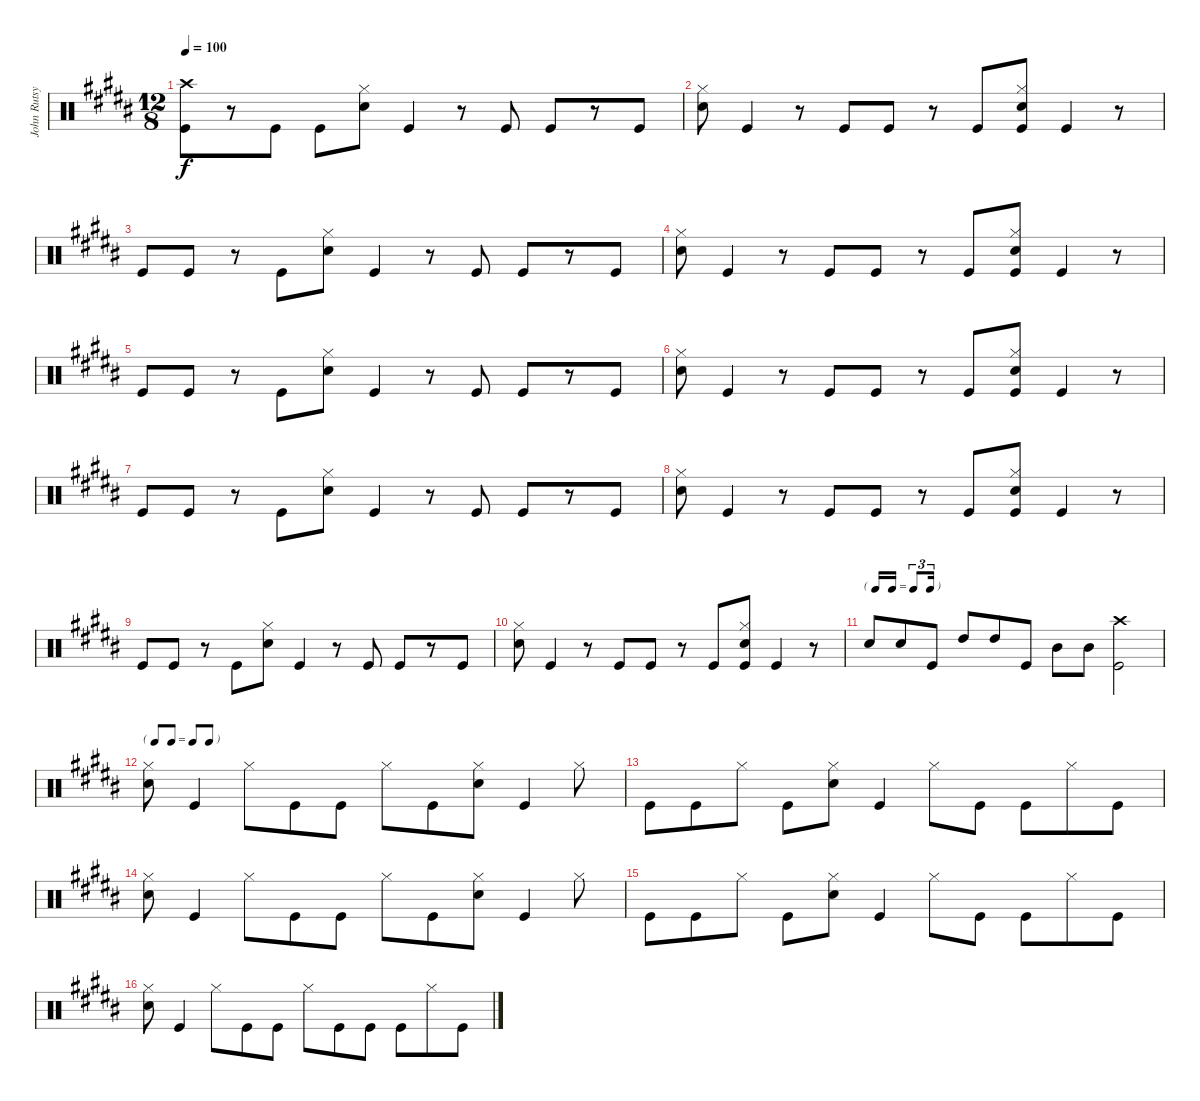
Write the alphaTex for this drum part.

\track ("John Rutsy Drums" "John Rutsy") {instrument percussion}
\staff {score}
\articulation defaults
\ts (12 8)
\tempo 100
\clef neutral
\ks b
("Crash high (hit)" "Kick (hit)").8{dy f} r.8 "Kick (hit)".8 "Kick (hit)".8 ("Hi-Hat (closed)" "Snare (hit) 2").8 "Kick (hit)".4 r.8 "Kick (hit)".8 "Kick (hit)".8 r.8 "Kick (hit)".8 |
("Hi-Hat (closed)" "Snare (hit) 2").8 "Kick (hit)".4 r.8 "Kick (hit)".8 "Kick (hit)".8 r.8 "Kick (hit)".8 ("Hi-Hat (closed)" "Snare (hit) 2" "Kick (hit)").8 "Kick (hit)".4 r.8 |
"Kick (hit)".8 "Kick (hit)".8 r.8 "Kick (hit)".8 ("Hi-Hat (closed)" "Snare (hit) 2").8 "Kick (hit)".4 r.8 "Kick (hit)".8 "Kick (hit)".8 r.8 "Kick (hit)".8 |
("Hi-Hat (closed)" "Snare (hit) 2").8 "Kick (hit)".4 r.8 "Kick (hit)".8 "Kick (hit)".8 r.8 "Kick (hit)".8 ("Hi-Hat (closed)" "Snare (hit) 2" "Kick (hit)").8 "Kick (hit)".4 r.8 |
"Kick (hit)".8 "Kick (hit)".8 r.8 "Kick (hit)".8 ("Hi-Hat (closed)" "Snare (hit) 2").8 "Kick (hit)".4 r.8 "Kick (hit)".8 "Kick (hit)".8 r.8 "Kick (hit)".8 |
("Hi-Hat (closed)" "Snare (hit) 2").8 "Kick (hit)".4 r.8 "Kick (hit)".8 "Kick (hit)".8 r.8 "Kick (hit)".8 ("Hi-Hat (closed)" "Snare (hit) 2" "Kick (hit)").8 "Kick (hit)".4 r.8 |
"Kick (hit)".8 "Kick (hit)".8 r.8 "Kick (hit)".8 ("Hi-Hat (closed)" "Snare (hit) 2").8 "Kick (hit)".4 r.8 "Kick (hit)".8 "Kick (hit)".8 r.8 "Kick (hit)".8 |
("Hi-Hat (closed)" "Snare (hit) 2").8 "Kick (hit)".4 r.8 "Kick (hit)".8 "Kick (hit)".8 r.8 "Kick (hit)".8 ("Hi-Hat (closed)" "Snare (hit) 2" "Kick (hit)").8 "Kick (hit)".4 r.8 |
"Kick (hit)".8 "Kick (hit)".8 r.8 "Kick (hit)".8 ("Hi-Hat (closed)" "Snare (hit) 2").8 "Kick (hit)".4 r.8 "Kick (hit)".8 "Kick (hit)".8 r.8 "Kick (hit)".8 |
("Hi-Hat (closed)" "Snare (hit) 2").8 "Kick (hit)".4 r.8 "Kick (hit)".8 "Kick (hit)".8 r.8 "Kick (hit)".8 ("Hi-Hat (closed)" "Snare (hit) 2" "Kick (hit)").8 "Kick (hit)".4 r.8 |
\tf triplet16th "Snare (hit) 2".8 "Snare (hit) 2".8 "Kick (hit)".8 "High Tom (hit)".8 "High Tom (hit)".8 "Kick (hit)".8 "Mid Tom (hit)".8 "Mid Tom (hit)".8
("Crash high (hit)" "Kick (hit)").2 |
\tf none
("Hi-Hat (closed)" "Snare (hit) 2").8 "Kick (hit)".4 "Hi-Hat (closed)".8 "Kick (hit)".8 "Kick (hit)".8 "Hi-Hat (closed)".8 "Kick (hit)".8 ("Hi-Hat (closed)" "Snare (hit) 2").8 "Kick (hit)".4 "Hi-Hat (closed)".8 |
"Kick (hit)".8 "Kick (hit)".8 "Hi-Hat (closed)".8 "Kick (hit)".8 ("Hi-Hat (closed)" "Snare (hit) 2").8 "Kick (hit)".4 "Hi-Hat (closed)".8 "Kick (hit)".8 "Kick (hit)".8 "Hi-Hat (closed)".8 "Kick (hit)".8 |
("Hi-Hat (closed)" "Snare (hit) 2").8 "Kick (hit)".4 "Hi-Hat (closed)".8 "Kick (hit)".8 "Kick (hit)".8 "Hi-Hat (closed)".8 "Kick (hit)".8 ("Hi-Hat (closed)" "Snare (hit) 2").8 "Kick (hit)".4 "Hi-Hat (closed)".8 |
"Kick (hit)".8 "Kick (hit)".8 "Hi-Hat (closed)".8 "Kick (hit)".8 ("Hi-Hat (closed)" "Snare (hit) 2").8 "Kick (hit)".4 "Hi-Hat (closed)".8 "Kick (hit)".8 "Kick (hit)".8 "Hi-Hat (closed)".8 "Kick (hit)".8 |
("Hi-Hat (closed)" "Snare (hit) 2").8 "Kick (hit)".4 "Hi-Hat (closed)".8 "Kick (hit)".8 "Kick (hit)".8 "Hi-Hat (closed)".8 "Kick (hit)".8 "Kick (hit)".8 "Kick (hit)".8 "Hi-Hat (closed)".8 "Kick (hit)".8
